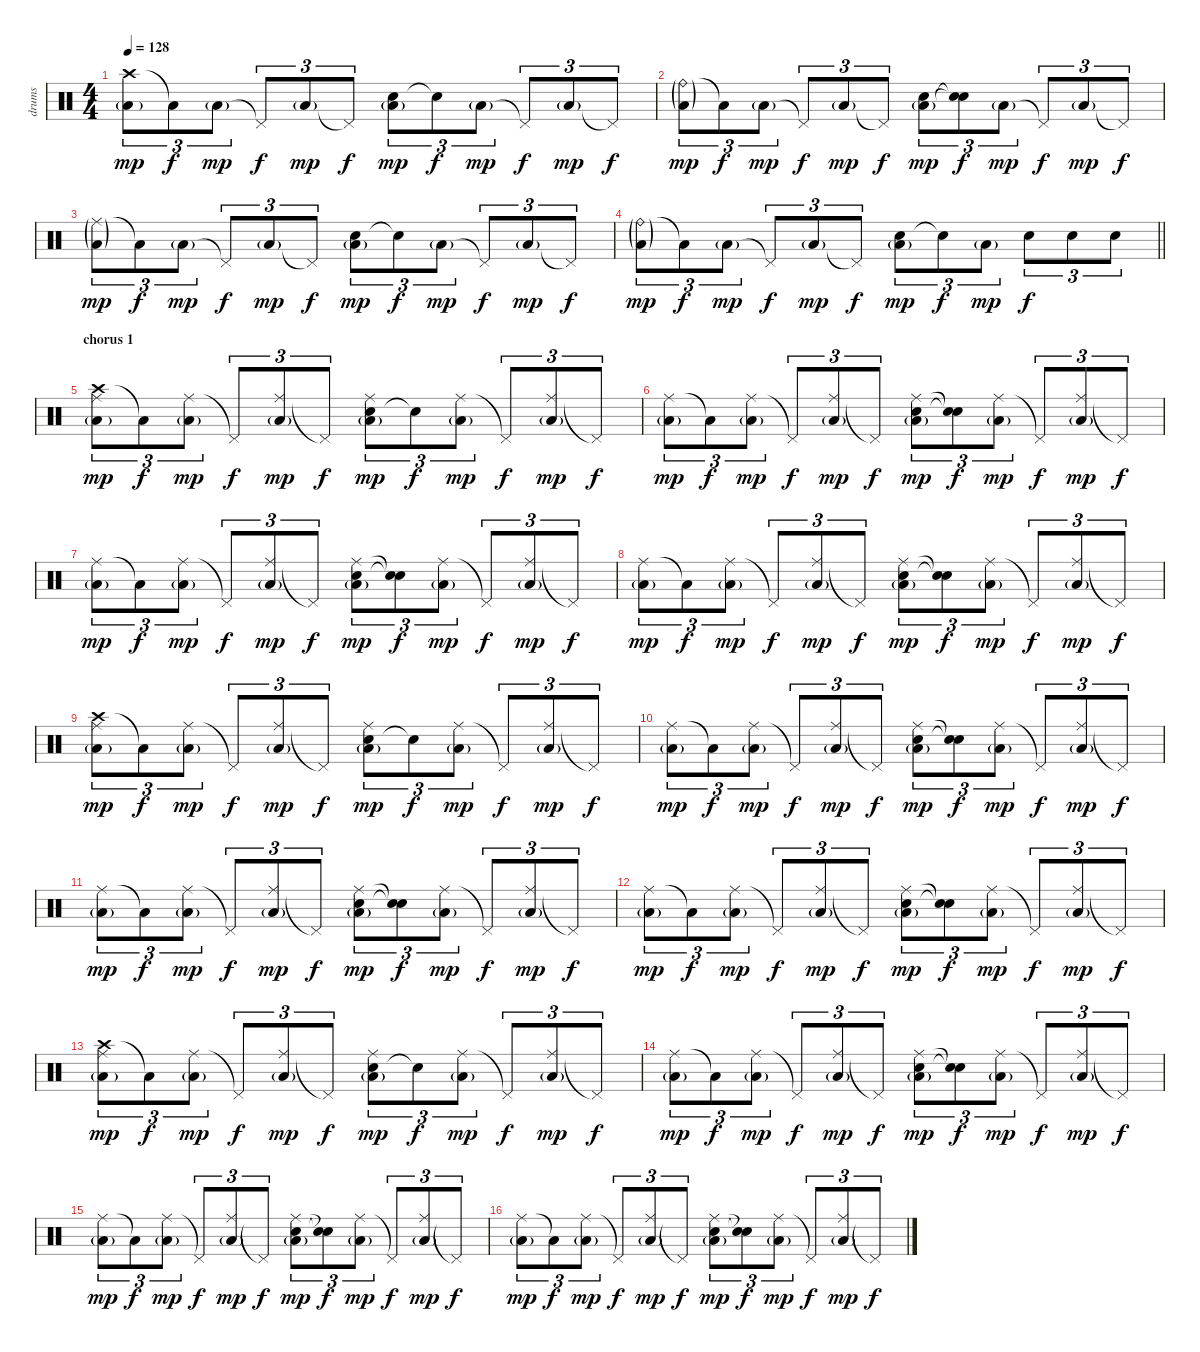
\track ("drums" "drums") {instrument percussion}
\staff {score}
\articulation defaults
\ts (4 4)
\tempo 128
\clef neutral
\ks c
("Crash high (hit)" "Low Floor Tom (hit)"{g}).8{tu (3 2) dy mp} "Low Floor Tom (hit)"{t}.8{tu (3 2) dy f} "Low Floor Tom (hit)"{g}.8{tu (3 2) dy mp} "Pedal Hi-Hat (hit)"{t}.8{tu (3 2) dy f} "Low Floor Tom (hit)"{g}.8{tu (3 2) dy mp} "Pedal Hi-Hat (hit)"{t}.8{tu (3 2) dy f} ("Electric Snare (hit)" "Low Floor Tom (hit)"{g}).8{tu (3 2) dy mp} "Electric Snare (hit)"{t}.8{tu (3 2) dy f} "Low Floor Tom (hit)"{g}.8{tu (3 2) dy mp} "Pedal Hi-Hat (hit)"{t}.8{tu (3 2) dy f} "Low Floor Tom (hit)"{g}.8{tu (3 2) dy mp} "Pedal Hi-Hat (hit)"{t}.8{tu (3 2) dy f} |
("Ride (bell)"{g} "Low Floor Tom (hit)"{g}).8{tu (3 2) dy mp} "Low Floor Tom (hit)"{t}.8{tu (3 2) dy f} "Low Floor Tom (hit)"{g}.8{tu (3 2) dy mp} "Pedal Hi-Hat (hit)"{t}.8{tu (3 2) dy f} "Low Floor Tom (hit)"{g}.8{tu (3 2) dy mp} "Pedal Hi-Hat (hit)"{t}.8{tu (3 2) dy f} ("Electric Snare (hit)" "Low Floor Tom (hit)"{g}).8{tu (3 2) dy mp} ("Electric Snare (hit)"{t} "Snare (hit)"{t}).8{tu (3 2) dy f} "Low Floor Tom (hit)"{g}.8{tu (3 2) dy mp} "Pedal Hi-Hat (hit)"{t}.8{tu (3 2) dy f} "Low Floor Tom (hit)"{g}.8{tu (3 2) dy mp} "Pedal Hi-Hat (hit)"{t}.8{tu (3 2) dy f} |
("Ride (middle)"{g} "Low Floor Tom (hit)"{g}).8{tu (3 2) dy mp} "Low Floor Tom (hit)"{t}.8{tu (3 2) dy f} "Low Floor Tom (hit)"{g}.8{tu (3 2) dy mp} "Pedal Hi-Hat (hit)"{t}.8{tu (3 2) dy f} "Low Floor Tom (hit)"{g}.8{tu (3 2) dy mp} "Pedal Hi-Hat (hit)"{t}.8{tu (3 2) dy f} ("Electric Snare (hit)" "Low Floor Tom (hit)"{g}).8{tu (3 2) dy mp} "Electric Snare (hit)"{t}.8{tu (3 2) dy f} "Low Floor Tom (hit)"{g}.8{tu (3 2) dy mp} "Pedal Hi-Hat (hit)"{t}.8{tu (3 2) dy f} "Low Floor Tom (hit)"{g}.8{tu (3 2) dy mp} "Pedal Hi-Hat (hit)"{t}.8{tu (3 2) dy f} |
\barLineRight lightlight
("Ride (bell)"{g} "Low Floor Tom (hit)"{g}).8{tu (3 2) dy mp} "Low Floor Tom (hit)"{t}.8{tu (3 2) dy f} "Low Floor Tom (hit)"{g}.8{tu (3 2) dy mp} "Pedal Hi-Hat (hit)"{t}.8{tu (3 2) dy f} "Low Floor Tom (hit)"{g}.8{tu (3 2) dy mp} "Pedal Hi-Hat (hit)"{t}.8{tu (3 2) dy f} ("Electric Snare (hit)" "Low Floor Tom (hit)"{g}).8{tu (3 2) dy mp} "Electric Snare (hit)"{t}.8{tu (3 2) dy f} "Low Floor Tom (hit)"{g}.8{tu (3 2) dy mp} "Electric Snare (hit)".8{tu (3 2) dy f} "Electric Snare (hit)".8{tu (3 2)} "Electric Snare (hit)".8{tu (3 2)} |
\section ("" "chorus 1")
("Crash high (hit)" "Ride (middle)" "Low Floor Tom (hit)"{g}).8{tu (3 2) dy mp} "Low Floor Tom (hit)"{t}.8{tu (3 2) dy f} ("Ride (middle)" "Low Floor Tom (hit)"{g}).8{tu (3 2) dy mp} "Pedal Hi-Hat (hit)"{t}.8{tu (3 2) dy f} ("Ride (middle)" "Low Floor Tom (hit)"{g}).8{tu (3 2) dy mp} "Pedal Hi-Hat (hit)"{t}.8{tu (3 2) dy f} ("Electric Snare (hit)" "Ride (middle)" "Low Floor Tom (hit)"{g}).8{tu (3 2) dy mp} "Electric Snare (hit)"{t}.8{tu (3 2) dy f} ("Ride (middle)" "Low Floor Tom (hit)"{g}).8{tu (3 2) dy mp} "Pedal Hi-Hat (hit)"{t}.8{tu (3 2) dy f} ("Ride (middle)" "Low Floor Tom (hit)"{g}).8{tu (3 2) dy mp} "Pedal Hi-Hat (hit)"{t}.8{tu (3 2) dy f} |
("Ride (middle)" "Low Floor Tom (hit)"{g}).8{tu (3 2) dy mp} "Low Floor Tom (hit)"{t}.8{tu (3 2) dy f} ("Ride (middle)" "Low Floor Tom (hit)"{g}).8{tu (3 2) dy mp} "Pedal Hi-Hat (hit)"{t}.8{tu (3 2) dy f} ("Ride (middle)" "Low Floor Tom (hit)"{g}).8{tu (3 2) dy mp} "Pedal Hi-Hat (hit)"{t}.8{tu (3 2) dy f} ("Electric Snare (hit)" "Ride (middle)" "Low Floor Tom (hit)"{g}).8{tu (3 2) dy mp} ("Electric Snare (hit)"{t} "Snare (hit)"{t}).8{tu (3 2) dy f} ("Ride (middle)" "Low Floor Tom (hit)"{g}).8{tu (3 2) dy mp} "Pedal Hi-Hat (hit)"{t}.8{tu (3 2) dy f} ("Ride (middle)" "Low Floor Tom (hit)"{g}).8{tu (3 2) dy mp} "Pedal Hi-Hat (hit)"{t}.8{tu (3 2) dy f} |
("Ride (middle)" "Low Floor Tom (hit)"{g}).8{tu (3 2) dy mp} "Low Floor Tom (hit)"{t}.8{tu (3 2) dy f} ("Ride (middle)" "Low Floor Tom (hit)"{g}).8{tu (3 2) dy mp} "Pedal Hi-Hat (hit)"{t}.8{tu (3 2) dy f} ("Ride (middle)" "Low Floor Tom (hit)"{g}).8{tu (3 2) dy mp} "Pedal Hi-Hat (hit)"{t}.8{tu (3 2) dy f} ("Electric Snare (hit)" "Ride (middle)" "Low Floor Tom (hit)"{g}).8{tu (3 2) dy mp} ("Electric Snare (hit)"{t} "Snare (hit)"{t}).8{tu (3 2) dy f} ("Ride (middle)" "Low Floor Tom (hit)"{g}).8{tu (3 2) dy mp} "Pedal Hi-Hat (hit)"{t}.8{tu (3 2) dy f} ("Ride (middle)" "Low Floor Tom (hit)"{g}).8{tu (3 2) dy mp} "Pedal Hi-Hat (hit)"{t}.8{tu (3 2) dy f} |
("Ride (middle)" "Low Floor Tom (hit)"{g}).8{tu (3 2) dy mp} "Low Floor Tom (hit)"{t}.8{tu (3 2) dy f} ("Ride (middle)" "Low Floor Tom (hit)"{g}).8{tu (3 2) dy mp} "Pedal Hi-Hat (hit)"{t}.8{tu (3 2) dy f} ("Ride (middle)" "Low Floor Tom (hit)"{g}).8{tu (3 2) dy mp} "Pedal Hi-Hat (hit)"{t}.8{tu (3 2) dy f} ("Electric Snare (hit)" "Ride (middle)" "Low Floor Tom (hit)"{g}).8{tu (3 2) dy mp} ("Electric Snare (hit)"{t} "Snare (hit)"{t}).8{tu (3 2) dy f} ("Ride (middle)" "Low Floor Tom (hit)"{g}).8{tu (3 2) dy mp} "Pedal Hi-Hat (hit)"{t}.8{tu (3 2) dy f} ("Ride (middle)" "Low Floor Tom (hit)"{g}).8{tu (3 2) dy mp} "Pedal Hi-Hat (hit)"{t}.8{tu (3 2) dy f} |
("Crash high (hit)" "Ride (middle)" "Low Floor Tom (hit)"{g}).8{tu (3 2) dy mp} "Low Floor Tom (hit)"{t}.8{tu (3 2) dy f} ("Ride (middle)" "Low Floor Tom (hit)"{g}).8{tu (3 2) dy mp} "Pedal Hi-Hat (hit)"{t}.8{tu (3 2) dy f} ("Ride (middle)" "Low Floor Tom (hit)"{g}).8{tu (3 2) dy mp} "Pedal Hi-Hat (hit)"{t}.8{tu (3 2) dy f} ("Electric Snare (hit)" "Ride (middle)" "Low Floor Tom (hit)"{g}).8{tu (3 2) dy mp} "Electric Snare (hit)"{t}.8{tu (3 2) dy f} ("Ride (middle)" "Low Floor Tom (hit)"{g}).8{tu (3 2) dy mp} "Pedal Hi-Hat (hit)"{t}.8{tu (3 2) dy f} ("Ride (middle)" "Low Floor Tom (hit)"{g}).8{tu (3 2) dy mp} "Pedal Hi-Hat (hit)"{t}.8{tu (3 2) dy f} |
("Ride (middle)" "Low Floor Tom (hit)"{g}).8{tu (3 2) dy mp} "Low Floor Tom (hit)"{t}.8{tu (3 2) dy f} ("Ride (middle)" "Low Floor Tom (hit)"{g}).8{tu (3 2) dy mp} "Pedal Hi-Hat (hit)"{t}.8{tu (3 2) dy f} ("Ride (middle)" "Low Floor Tom (hit)"{g}).8{tu (3 2) dy mp} "Pedal Hi-Hat (hit)"{t}.8{tu (3 2) dy f} ("Electric Snare (hit)" "Ride (middle)" "Low Floor Tom (hit)"{g}).8{tu (3 2) dy mp} ("Electric Snare (hit)"{t} "Snare (hit)"{t}).8{tu (3 2) dy f} ("Ride (middle)" "Low Floor Tom (hit)"{g}).8{tu (3 2) dy mp} "Pedal Hi-Hat (hit)"{t}.8{tu (3 2) dy f} ("Ride (middle)" "Low Floor Tom (hit)"{g}).8{tu (3 2) dy mp} "Pedal Hi-Hat (hit)"{t}.8{tu (3 2) dy f} |
("Ride (middle)" "Low Floor Tom (hit)"{g}).8{tu (3 2) dy mp} "Low Floor Tom (hit)"{t}.8{tu (3 2) dy f} ("Ride (middle)" "Low Floor Tom (hit)"{g}).8{tu (3 2) dy mp} "Pedal Hi-Hat (hit)"{t}.8{tu (3 2) dy f} ("Ride (middle)" "Low Floor Tom (hit)"{g}).8{tu (3 2) dy mp} "Pedal Hi-Hat (hit)"{t}.8{tu (3 2) dy f} ("Electric Snare (hit)" "Ride (middle)" "Low Floor Tom (hit)"{g}).8{tu (3 2) dy mp} ("Electric Snare (hit)"{t} "Snare (hit)"{t}).8{tu (3 2) dy f} ("Ride (middle)" "Low Floor Tom (hit)"{g}).8{tu (3 2) dy mp} "Pedal Hi-Hat (hit)"{t}.8{tu (3 2) dy f} ("Ride (middle)" "Low Floor Tom (hit)"{g}).8{tu (3 2) dy mp} "Pedal Hi-Hat (hit)"{t}.8{tu (3 2) dy f} |
("Ride (middle)" "Low Floor Tom (hit)"{g}).8{tu (3 2) dy mp} "Low Floor Tom (hit)"{t}.8{tu (3 2) dy f} ("Ride (middle)" "Low Floor Tom (hit)"{g}).8{tu (3 2) dy mp} "Pedal Hi-Hat (hit)"{t}.8{tu (3 2) dy f} ("Ride (middle)" "Low Floor Tom (hit)"{g}).8{tu (3 2) dy mp} "Pedal Hi-Hat (hit)"{t}.8{tu (3 2) dy f} ("Electric Snare (hit)" "Ride (middle)" "Low Floor Tom (hit)"{g}).8{tu (3 2) dy mp} ("Electric Snare (hit)"{t} "Snare (hit)"{t}).8{tu (3 2) dy f} ("Ride (middle)" "Low Floor Tom (hit)"{g}).8{tu (3 2) dy mp} "Pedal Hi-Hat (hit)"{t}.8{tu (3 2) dy f} ("Ride (middle)" "Low Floor Tom (hit)"{g}).8{tu (3 2) dy mp} "Pedal Hi-Hat (hit)"{t}.8{tu (3 2) dy f} |
("Crash high (hit)" "Ride (middle)" "Low Floor Tom (hit)"{g}).8{tu (3 2) dy mp} "Low Floor Tom (hit)"{t}.8{tu (3 2) dy f} ("Ride (middle)" "Low Floor Tom (hit)"{g}).8{tu (3 2) dy mp} "Pedal Hi-Hat (hit)"{t}.8{tu (3 2) dy f} ("Ride (middle)" "Low Floor Tom (hit)"{g}).8{tu (3 2) dy mp} "Pedal Hi-Hat (hit)"{t}.8{tu (3 2) dy f} ("Electric Snare (hit)" "Ride (middle)" "Low Floor Tom (hit)"{g}).8{tu (3 2) dy mp} "Electric Snare (hit)"{t}.8{tu (3 2) dy f} ("Ride (middle)" "Low Floor Tom (hit)"{g}).8{tu (3 2) dy mp} "Pedal Hi-Hat (hit)"{t}.8{tu (3 2) dy f} ("Ride (middle)" "Low Floor Tom (hit)"{g}).8{tu (3 2) dy mp} "Pedal Hi-Hat (hit)"{t}.8{tu (3 2) dy f} |
("Ride (middle)" "Low Floor Tom (hit)"{g}).8{tu (3 2) dy mp} "Low Floor Tom (hit)"{t}.8{tu (3 2) dy f} ("Ride (middle)" "Low Floor Tom (hit)"{g}).8{tu (3 2) dy mp} "Pedal Hi-Hat (hit)"{t}.8{tu (3 2) dy f} ("Ride (middle)" "Low Floor Tom (hit)"{g}).8{tu (3 2) dy mp} "Pedal Hi-Hat (hit)"{t}.8{tu (3 2) dy f} ("Electric Snare (hit)" "Ride (middle)" "Low Floor Tom (hit)"{g}).8{tu (3 2) dy mp} ("Electric Snare (hit)"{t} "Snare (hit)"{t}).8{tu (3 2) dy f} ("Ride (middle)" "Low Floor Tom (hit)"{g}).8{tu (3 2) dy mp} "Pedal Hi-Hat (hit)"{t}.8{tu (3 2) dy f} ("Ride (middle)" "Low Floor Tom (hit)"{g}).8{tu (3 2) dy mp} "Pedal Hi-Hat (hit)"{t}.8{tu (3 2) dy f} |
("Ride (middle)" "Low Floor Tom (hit)"{g}).8{tu (3 2) dy mp} "Low Floor Tom (hit)"{t}.8{tu (3 2) dy f} ("Ride (middle)" "Low Floor Tom (hit)"{g}).8{tu (3 2) dy mp} "Pedal Hi-Hat (hit)"{t}.8{tu (3 2) dy f} ("Ride (middle)" "Low Floor Tom (hit)"{g}).8{tu (3 2) dy mp} "Pedal Hi-Hat (hit)"{t}.8{tu (3 2) dy f} ("Electric Snare (hit)" "Ride (middle)" "Low Floor Tom (hit)"{g}).8{tu (3 2) dy mp} ("Electric Snare (hit)"{t} "Snare (hit)"{t}).8{tu (3 2) dy f} ("Ride (middle)" "Low Floor Tom (hit)"{g}).8{tu (3 2) dy mp} "Pedal Hi-Hat (hit)"{t}.8{tu (3 2) dy f} ("Ride (middle)" "Low Floor Tom (hit)"{g}).8{tu (3 2) dy mp} "Pedal Hi-Hat (hit)"{t}.8{tu (3 2) dy f} |
("Ride (middle)" "Low Floor Tom (hit)"{g}).8{tu (3 2) dy mp} "Low Floor Tom (hit)"{t}.8{tu (3 2) dy f} ("Ride (middle)" "Low Floor Tom (hit)"{g}).8{tu (3 2) dy mp} "Pedal Hi-Hat (hit)"{t}.8{tu (3 2) dy f} ("Ride (middle)" "Low Floor Tom (hit)"{g}).8{tu (3 2) dy mp} "Pedal Hi-Hat (hit)"{t}.8{tu (3 2) dy f} ("Electric Snare (hit)" "Ride (middle)" "Low Floor Tom (hit)"{g}).8{tu (3 2) dy mp} ("Electric Snare (hit)"{t} "Snare (hit)"{t}).8{tu (3 2) dy f} ("Ride (middle)" "Low Floor Tom (hit)"{g}).8{tu (3 2) dy mp} "Pedal Hi-Hat (hit)"{t}.8{tu (3 2) dy f} ("Ride (middle)" "Low Floor Tom (hit)"{g}).8{tu (3 2) dy mp} "Pedal Hi-Hat (hit)"{t}.8{tu (3 2) dy f}
